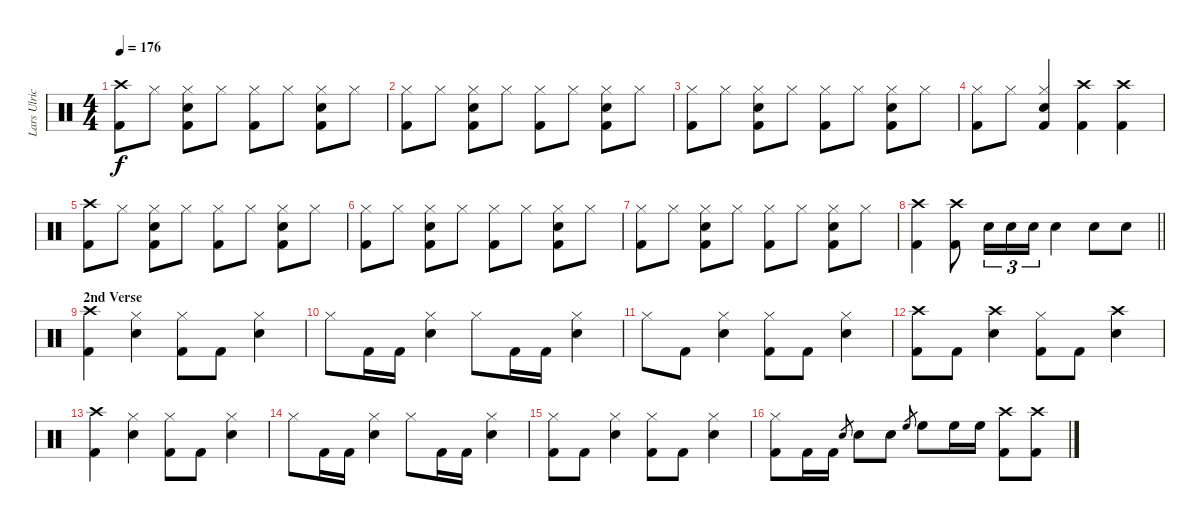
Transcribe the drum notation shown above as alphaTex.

\track ("Lars Ulrich" "Lars Ulric") {instrument percussion}
\staff {score}
\articulation defaults
\ts (4 4)
\tempo 176
\clef neutral
\ks c
("Crash high (hit)" "Kick (hit) 2").8{dy f} "Hi-Hat (closed)".8 ("Hi-Hat (closed)" "Snare (hit) 2" "Kick (hit) 2").8 "Hi-Hat (closed)".8 ("Hi-Hat (closed)" "Kick (hit) 2").8 "Hi-Hat (closed)".8 ("Hi-Hat (closed)" "Snare (hit) 2" "Kick (hit) 2").8 "Hi-Hat (closed)".8 |
("Hi-Hat (closed)" "Kick (hit) 2").8 "Hi-Hat (closed)".8 ("Hi-Hat (closed)" "Snare (hit) 2" "Kick (hit) 2").8 "Hi-Hat (closed)".8 ("Hi-Hat (closed)" "Kick (hit) 2").8 "Hi-Hat (closed)".8 ("Hi-Hat (closed)" "Snare (hit) 2" "Kick (hit) 2").8 "Hi-Hat (closed)".8 |
("Hi-Hat (closed)" "Kick (hit) 2").8 "Hi-Hat (closed)".8 ("Hi-Hat (closed)" "Snare (hit) 2" "Kick (hit) 2").8 "Hi-Hat (closed)".8 ("Hi-Hat (closed)" "Kick (hit) 2").8 "Hi-Hat (closed)".8 ("Hi-Hat (closed)" "Snare (hit) 2" "Kick (hit) 2").8 "Hi-Hat (closed)".8 |
("Hi-Hat (closed)" "Kick (hit) 2").8 "Hi-Hat (closed)".8 ("Hi-Hat (closed)" "Snare (hit) 2" "Kick (hit) 2").4 ("Crash high (hit)" "Kick (hit) 2").4 ("Crash high (hit)" "Kick (hit) 2").4 |
("Crash high (hit)" "Kick (hit) 2").8 "Hi-Hat (closed)".8 ("Hi-Hat (closed)" "Snare (hit) 2" "Kick (hit) 2").8 "Hi-Hat (closed)".8 ("Hi-Hat (closed)" "Kick (hit) 2").8 "Hi-Hat (closed)".8 ("Hi-Hat (closed)" "Snare (hit) 2" "Kick (hit) 2").8 "Hi-Hat (closed)".8 |
("Hi-Hat (closed)" "Kick (hit) 2").8 "Hi-Hat (closed)".8 ("Hi-Hat (closed)" "Snare (hit) 2" "Kick (hit) 2").8 "Hi-Hat (closed)".8 ("Hi-Hat (closed)" "Kick (hit) 2").8 "Hi-Hat (closed)".8 ("Hi-Hat (closed)" "Snare (hit) 2" "Kick (hit) 2").8 "Hi-Hat (closed)".8 |
("Hi-Hat (closed)" "Kick (hit) 2").8 "Hi-Hat (closed)".8 ("Hi-Hat (closed)" "Snare (hit) 2" "Kick (hit) 2").8 "Hi-Hat (closed)".8 ("Hi-Hat (closed)" "Kick (hit) 2").8 "Hi-Hat (closed)".8 ("Hi-Hat (closed)" "Snare (hit) 2" "Kick (hit) 2").8 "Hi-Hat (closed)".8 |
\barLineRight lightlight
("Crash high (hit)" "Kick (hit) 2").4 ("Crash high (hit)" "Kick (hit) 2").8 "Snare (hit) 2".16{tu (3 2)} "Snare (hit) 2".16{tu (3 2)} "Snare (hit) 2".16{tu (3 2)} "Snare (hit) 2".4 "Snare (hit) 2".8 "Snare (hit) 2".8 |
\section ("" "2nd Verse")
("Crash high (hit)" "Kick (hit) 2").4 ("Hi-Hat (closed)" "Snare (hit) 2").4 ("Hi-Hat (closed)" "Kick (hit) 2").8 "Kick (hit) 2".8 ("Hi-Hat (closed)" "Snare (hit) 2").4 |
"Hi-Hat (closed)".8 "Kick (hit) 2".16 "Kick (hit) 2".16 ("Hi-Hat (closed)" "Snare (hit) 2").4 "Hi-Hat (closed)".8 "Kick (hit) 2".16 "Kick (hit) 2".16 ("Hi-Hat (closed)" "Snare (hit) 2").4 |
"Hi-Hat (closed)".8 "Kick (hit) 2".8 ("Hi-Hat (closed)" "Snare (hit) 2").4 ("Hi-Hat (closed)" "Kick (hit) 2").8 "Kick (hit) 2".8 ("Hi-Hat (closed)" "Snare (hit) 2").4 |
("Crash high (hit)" "Kick (hit) 2").8 "Kick (hit) 2".8 ("Crash high (hit)" "Snare (hit) 2").4 ("Hi-Hat (closed)" "Kick (hit) 2").8 "Kick (hit) 2".8 ("Crash high (hit)" "Snare (hit) 2").4 |
("Crash high (hit)" "Kick (hit) 2").4 ("Hi-Hat (closed)" "Snare (hit) 2").4 ("Hi-Hat (closed)" "Kick (hit) 2").8 "Kick (hit) 2".8 ("Hi-Hat (closed)" "Snare (hit) 2").4 |
"Hi-Hat (closed)".8 "Kick (hit) 2".16 "Kick (hit) 2".16 ("Hi-Hat (closed)" "Snare (hit) 2").4 "Hi-Hat (closed)".8 "Kick (hit) 2".16 "Kick (hit) 2".16 ("Hi-Hat (closed)" "Snare (hit) 2").4 |
("Hi-Hat (closed)" "Kick (hit) 2").8 "Kick (hit) 2".8 ("Hi-Hat (closed)" "Snare (hit) 2").4 ("Hi-Hat (closed)" "Kick (hit) 2").8 "Kick (hit) 2".8 ("Hi-Hat (closed)" "Snare (hit) 2").4 |
("Hi-Hat (closed)" "Kick (hit) 2").8 "Kick (hit) 2".16 "Kick (hit) 2".16 "Snare (hit) 2".8{gr} "Snare (hit) 2".8 "Snare (hit) 2".8 "High Floor Tom (hit)".8{gr} "High Floor Tom (hit)".8 "High Floor Tom (hit)".16 "High Floor Tom (hit)".16 ("Crash high (hit)" "Kick (hit) 2").8 ("Crash high (hit)" "Kick (hit) 2").8
